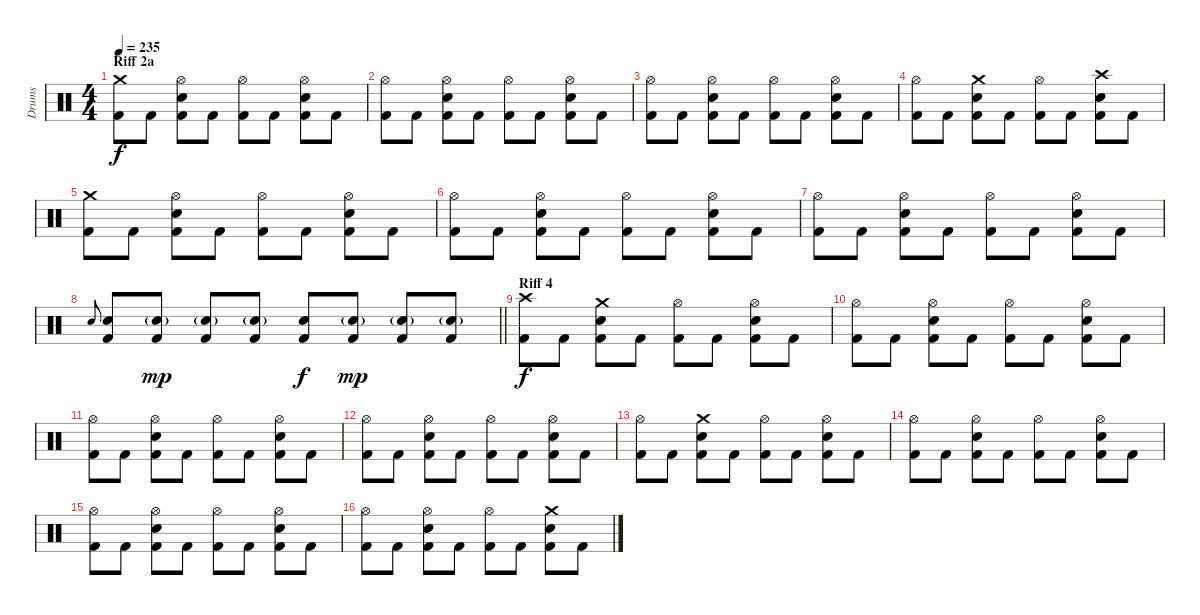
\track ("Drums" "Drums") {instrument percussion}
\staff {score}
\articulation defaults
\ts (4 4)
\section ("" "Riff 2a")
\tempo 235
\clef neutral
\ks aminor
("Crash medium (hit)" "Kick (hit) 2").8{dy f} "Kick (hit) 2".8 ("Electric Snare (hit)" "Kick (hit) 2" "Hi-Hat (open)").8 "Kick (hit) 2".8 ("Hi-Hat (open)" "Kick (hit) 2").8 "Kick (hit) 2".8 ("Hi-Hat (open)" "Kick (hit) 2" "Electric Snare (hit)").8 "Kick (hit) 2".8 |
("Hi-Hat (open)" "Kick (hit) 2").8 "Kick (hit) 2".8 ("Hi-Hat (open)" "Kick (hit) 2" "Electric Snare (hit)").8 "Kick (hit) 2".8 ("Hi-Hat (open)" "Kick (hit) 2").8 "Kick (hit) 2".8 ("Hi-Hat (open)" "Kick (hit) 2" "Electric Snare (hit)").8 "Kick (hit) 2".8 |
("Hi-Hat (open)" "Kick (hit) 2").8 "Kick (hit) 2".8 ("Hi-Hat (open)" "Kick (hit) 2" "Electric Snare (hit)").8 "Kick (hit) 2".8 ("Hi-Hat (open)" "Kick (hit) 2").8 "Kick (hit) 2".8 ("Hi-Hat (open)" "Kick (hit) 2" "Electric Snare (hit)").8 "Kick (hit) 2".8 |
("Hi-Hat (open)" "Kick (hit) 2").8 "Kick (hit) 2".8 ("Crash medium (hit)" "Kick (hit) 2" "Electric Snare (hit)").8 "Kick (hit) 2".8 ("Hi-Hat (open)" "Kick (hit) 2").8 "Kick (hit) 2".8 ("Crash high (hit)" "Kick (hit) 2" "Electric Snare (hit)").8 "Kick (hit) 2".8 |
("Crash medium (hit)" "Kick (hit) 2").8 "Kick (hit) 2".8 ("Electric Snare (hit)" "Kick (hit) 2" "Hi-Hat (open)").8 "Kick (hit) 2".8 ("Hi-Hat (open)" "Kick (hit) 2").8 "Kick (hit) 2".8 ("Hi-Hat (open)" "Kick (hit) 2" "Electric Snare (hit)").8 "Kick (hit) 2".8 |
("Hi-Hat (open)" "Kick (hit) 2").8 "Kick (hit) 2".8 ("Hi-Hat (open)" "Kick (hit) 2" "Electric Snare (hit)").8 "Kick (hit) 2".8 ("Hi-Hat (open)" "Kick (hit) 2").8 "Kick (hit) 2".8 ("Hi-Hat (open)" "Kick (hit) 2" "Electric Snare (hit)").8 "Kick (hit) 2".8 |
("Hi-Hat (open)" "Kick (hit) 2").8 "Kick (hit) 2".8 ("Hi-Hat (open)" "Kick (hit) 2" "Electric Snare (hit)").8 "Kick (hit) 2".8 ("Hi-Hat (open)" "Kick (hit) 2").8 "Kick (hit) 2".8 ("Hi-Hat (open)" "Kick (hit) 2" "Electric Snare (hit)").8 "Kick (hit) 2".8 |
\barLineRight lightlight "Electric Snare (hit)".8{gr onbeat}
("Electric Snare (hit)" "Kick (hit) 2").8 ("Electric Snare (hit)"{g} "Kick (hit) 2").8{dy mp} ("Electric Snare (hit)"{g} "Kick (hit) 2").8 ("Electric Snare (hit)"{g} "Kick (hit) 2").8 ("Electric Snare (hit)" "Kick (hit) 2").8{dy f} ("Electric Snare (hit)"{g} "Kick (hit) 2").8{dy mp} ("Electric Snare (hit)"{g} "Kick (hit) 2").8 ("Electric Snare (hit)"{g} "Kick (hit) 2").8 |
\section ("" "Riff 4")
("Crash high (hit)" "Kick (hit) 2").8{dy f} "Kick (hit) 2".8 ("Electric Snare (hit)" "Crash medium (hit)" "Kick (hit) 2").8 "Kick (hit) 2".8 ("Hi-Hat (open)" "Kick (hit) 2").8 "Kick (hit) 2".8 ("Electric Snare (hit)" "Hi-Hat (open)" "Kick (hit) 2").8 "Kick (hit) 2".8 |
("Hi-Hat (open)" "Kick (hit) 2").8 "Kick (hit) 2".8 ("Electric Snare (hit)" "Hi-Hat (open)" "Kick (hit) 2").8 "Kick (hit) 2".8 ("Hi-Hat (open)" "Kick (hit) 2").8 "Kick (hit) 2".8 ("Electric Snare (hit)" "Hi-Hat (open)" "Kick (hit) 2").8 "Kick (hit) 2".8 |
("Hi-Hat (open)" "Kick (hit) 2").8 "Kick (hit) 2".8 ("Electric Snare (hit)" "Hi-Hat (open)" "Kick (hit) 2").8 "Kick (hit) 2".8 ("Hi-Hat (open)" "Kick (hit) 2").8 "Kick (hit) 2".8 ("Electric Snare (hit)" "Hi-Hat (open)" "Kick (hit) 2").8 "Kick (hit) 2".8 |
("Hi-Hat (open)" "Kick (hit) 2").8 "Kick (hit) 2".8 ("Electric Snare (hit)" "Hi-Hat (open)" "Kick (hit) 2").8 "Kick (hit) 2".8 ("Hi-Hat (open)" "Kick (hit) 2").8 "Kick (hit) 2".8 ("Electric Snare (hit)" "Hi-Hat (open)" "Kick (hit) 2").8 "Kick (hit) 2".8 |
("Hi-Hat (open)" "Kick (hit) 2").8 "Kick (hit) 2".8 ("Electric Snare (hit)" "Crash medium (hit)" "Kick (hit) 2").8 "Kick (hit) 2".8 ("Hi-Hat (open)" "Kick (hit) 2").8 "Kick (hit) 2".8 ("Electric Snare (hit)" "Hi-Hat (open)" "Kick (hit) 2").8 "Kick (hit) 2".8 |
("Hi-Hat (open)" "Kick (hit) 2").8 "Kick (hit) 2".8 ("Electric Snare (hit)" "Hi-Hat (open)" "Kick (hit) 2").8 "Kick (hit) 2".8 ("Hi-Hat (open)" "Kick (hit) 2").8 "Kick (hit) 2".8 ("Electric Snare (hit)" "Hi-Hat (open)" "Kick (hit) 2").8 "Kick (hit) 2".8 |
("Hi-Hat (open)" "Kick (hit) 2").8 "Kick (hit) 2".8 ("Electric Snare (hit)" "Hi-Hat (open)" "Kick (hit) 2").8 "Kick (hit) 2".8 ("Hi-Hat (open)" "Kick (hit) 2").8 "Kick (hit) 2".8 ("Electric Snare (hit)" "Hi-Hat (open)" "Kick (hit) 2").8 "Kick (hit) 2".8 |
("Hi-Hat (open)" "Kick (hit) 2").8 "Kick (hit) 2".8 ("Electric Snare (hit)" "Hi-Hat (open)" "Kick (hit) 2").8 "Kick (hit) 2".8 ("Hi-Hat (open)" "Kick (hit) 2").8 "Kick (hit) 2".8 ("Electric Snare (hit)" "Crash medium (hit)" "Kick (hit) 2").8 "Kick (hit) 2".8
